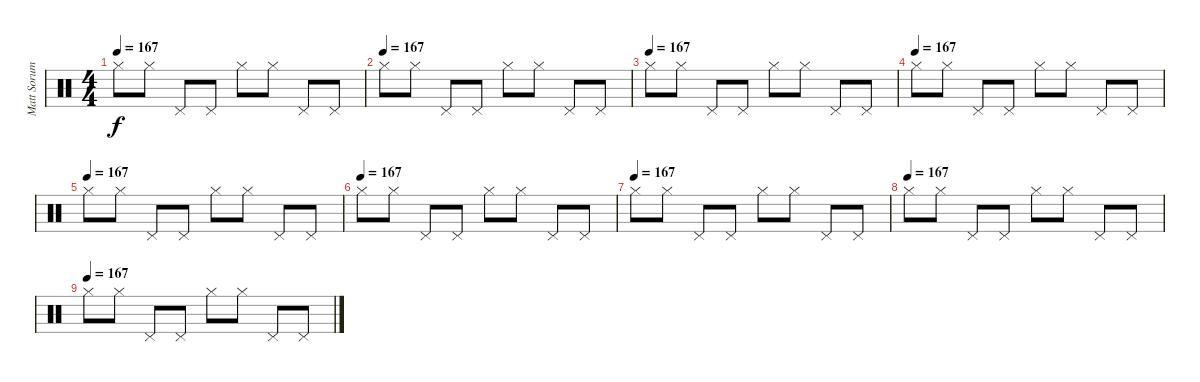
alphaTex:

\track ("Matt Sorum" "Matt Sorum") {instrument percussion}
\staff {score}
\articulation defaults
\ts (4 4)
\tempo 167
\clef neutral
\ks c "Hi-Hat (closed)".8{dy f} "Hi-Hat (closed)".8 "Pedal Hi-Hat (hit)".8 "Pedal Hi-Hat (hit)".8 "Hi-Hat (closed)".8 "Hi-Hat (closed)".8 "Pedal Hi-Hat (hit)".8 "Pedal Hi-Hat (hit)".8
|
\tempo (167)
"Hi-Hat (closed)".8 "Hi-Hat (closed)".8 "Pedal Hi-Hat (hit)".8 "Pedal Hi-Hat (hit)".8 "Hi-Hat (closed)".8 "Hi-Hat (closed)".8 "Pedal Hi-Hat (hit)".8 "Pedal Hi-Hat (hit)".8 |
\tempo (167)
"Hi-Hat (closed)".8 "Hi-Hat (closed)".8 "Pedal Hi-Hat (hit)".8 "Pedal Hi-Hat (hit)".8 "Hi-Hat (closed)".8 "Hi-Hat (closed)".8 "Pedal Hi-Hat (hit)".8 "Pedal Hi-Hat (hit)".8 |
\tempo (167)
"Hi-Hat (closed)".8 "Hi-Hat (closed)".8 "Pedal Hi-Hat (hit)".8 "Pedal Hi-Hat (hit)".8 "Hi-Hat (closed)".8 "Hi-Hat (closed)".8 "Pedal Hi-Hat (hit)".8 "Pedal Hi-Hat (hit)".8 |
\tempo (167)
"Hi-Hat (closed)".8 "Hi-Hat (closed)".8 "Pedal Hi-Hat (hit)".8 "Pedal Hi-Hat (hit)".8 "Hi-Hat (closed)".8 "Hi-Hat (closed)".8 "Pedal Hi-Hat (hit)".8 "Pedal Hi-Hat (hit)".8 |
\tempo (167)
"Hi-Hat (closed)".8 "Hi-Hat (closed)".8 "Pedal Hi-Hat (hit)".8 "Pedal Hi-Hat (hit)".8 "Hi-Hat (closed)".8 "Hi-Hat (closed)".8 "Pedal Hi-Hat (hit)".8 "Pedal Hi-Hat (hit)".8 |
\tempo (167)
"Hi-Hat (closed)".8 "Hi-Hat (closed)".8 "Pedal Hi-Hat (hit)".8 "Pedal Hi-Hat (hit)".8 "Hi-Hat (closed)".8 "Hi-Hat (closed)".8 "Pedal Hi-Hat (hit)".8 "Pedal Hi-Hat (hit)".8 |
\tempo (167)
"Hi-Hat (closed)".8 "Hi-Hat (closed)".8 "Pedal Hi-Hat (hit)".8 "Pedal Hi-Hat (hit)".8 "Hi-Hat (closed)".8 "Hi-Hat (closed)".8 "Pedal Hi-Hat (hit)".8 "Pedal Hi-Hat (hit)".8 |
\tempo (167)
"Hi-Hat (closed)".8 "Hi-Hat (closed)".8 "Pedal Hi-Hat (hit)".8 "Pedal Hi-Hat (hit)".8 "Hi-Hat (closed)".8 "Hi-Hat (closed)".8 "Pedal Hi-Hat (hit)".8 "Pedal Hi-Hat (hit)".8
